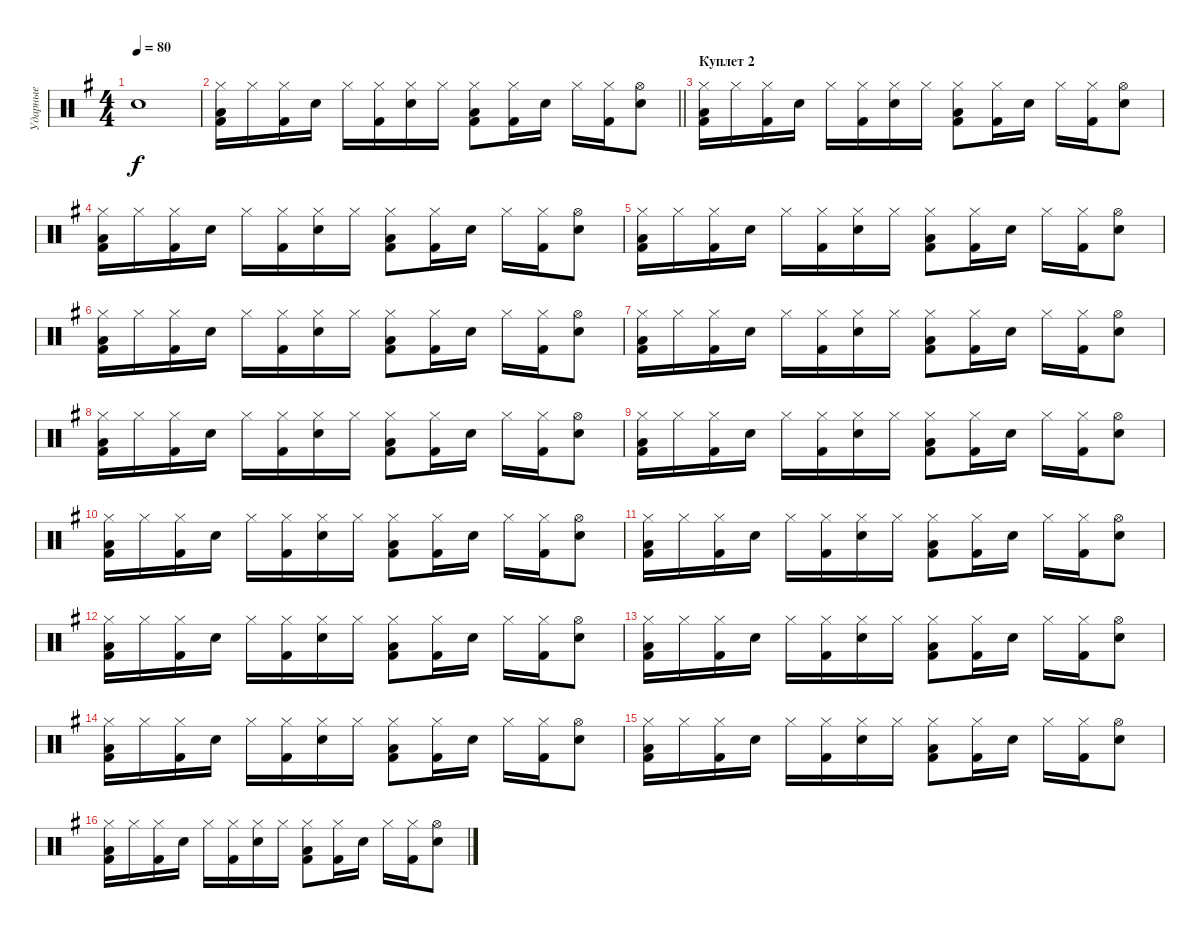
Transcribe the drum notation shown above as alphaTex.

\track ("Ударные" "Ударные") {instrument percussion}
\staff {score}
\articulation defaults
\ts (4 4)
\section ("" "")
\tempo 80
\clef neutral
\ks eminor "Snare (hit)"{t}.1{dy f}
|
\barLineRight lightlight
("Hi-Hat (closed)" "Low Tom (hit)" "Kick (hit) 2").16 "Hi-Hat (closed)".16 ("Hi-Hat (closed)" "Kick (hit) 2").16 "Electric Snare (hit)".16 "Hi-Hat (closed)".16 ("Hi-Hat (closed)" "Kick (hit) 2").16 ("Hi-Hat (closed)" "Electric Snare (hit)").16 "Hi-Hat (closed)".16 ("Hi-Hat (closed)" "Low Tom (hit)" "Kick (hit) 2").8 ("Hi-Hat (closed)" "Kick (hit) 2").16 "Electric Snare (hit)".16 "Hi-Hat (closed)".16 ("Hi-Hat (closed)" "Kick (hit) 2").16 ("Hi-Hat (open)" "Electric Snare (hit)").8 |
\section ("" "Куплет 2")
("Hi-Hat (closed)" "Low Tom (hit)" "Kick (hit) 2").16 "Hi-Hat (closed)".16 ("Hi-Hat (closed)" "Kick (hit) 2").16 "Electric Snare (hit)".16 "Hi-Hat (closed)".16 ("Hi-Hat (closed)" "Kick (hit) 2").16 ("Hi-Hat (closed)" "Electric Snare (hit)").16 "Hi-Hat (closed)".16 ("Hi-Hat (closed)" "Low Tom (hit)" "Kick (hit) 2").8 ("Hi-Hat (closed)" "Kick (hit) 2").16 "Electric Snare (hit)".16 "Hi-Hat (closed)".16 ("Hi-Hat (closed)" "Kick (hit) 2").16 ("Hi-Hat (open)" "Electric Snare (hit)").8 |
("Hi-Hat (closed)" "Low Tom (hit)" "Kick (hit) 2").16 "Hi-Hat (closed)".16 ("Hi-Hat (closed)" "Kick (hit) 2").16 "Electric Snare (hit)".16 "Hi-Hat (closed)".16 ("Hi-Hat (closed)" "Kick (hit) 2").16 ("Hi-Hat (closed)" "Electric Snare (hit)").16 "Hi-Hat (closed)".16 ("Hi-Hat (closed)" "Low Tom (hit)" "Kick (hit) 2").8 ("Hi-Hat (closed)" "Kick (hit) 2").16 "Electric Snare (hit)".16 "Hi-Hat (closed)".16 ("Hi-Hat (closed)" "Kick (hit) 2").16 ("Hi-Hat (open)" "Electric Snare (hit)").8 |
("Hi-Hat (closed)" "Low Tom (hit)" "Kick (hit) 2").16 "Hi-Hat (closed)".16 ("Hi-Hat (closed)" "Kick (hit) 2").16 "Electric Snare (hit)".16 "Hi-Hat (closed)".16 ("Hi-Hat (closed)" "Kick (hit) 2").16 ("Hi-Hat (closed)" "Electric Snare (hit)").16 "Hi-Hat (closed)".16 ("Hi-Hat (closed)" "Low Tom (hit)" "Kick (hit) 2").8 ("Hi-Hat (closed)" "Kick (hit) 2").16 "Electric Snare (hit)".16 "Hi-Hat (closed)".16 ("Hi-Hat (closed)" "Kick (hit) 2").16 ("Hi-Hat (open)" "Electric Snare (hit)").8 |
("Hi-Hat (closed)" "Low Tom (hit)" "Kick (hit) 2").16 "Hi-Hat (closed)".16 ("Hi-Hat (closed)" "Kick (hit) 2").16 "Electric Snare (hit)".16 "Hi-Hat (closed)".16 ("Hi-Hat (closed)" "Kick (hit) 2").16 ("Hi-Hat (closed)" "Electric Snare (hit)").16 "Hi-Hat (closed)".16 ("Hi-Hat (closed)" "Low Tom (hit)" "Kick (hit) 2").8 ("Hi-Hat (closed)" "Kick (hit) 2").16 "Electric Snare (hit)".16 "Hi-Hat (closed)".16 ("Hi-Hat (closed)" "Kick (hit) 2").16 ("Hi-Hat (open)" "Electric Snare (hit)").8 |
("Hi-Hat (closed)" "Low Tom (hit)" "Kick (hit) 2").16 "Hi-Hat (closed)".16 ("Hi-Hat (closed)" "Kick (hit) 2").16 "Electric Snare (hit)".16 "Hi-Hat (closed)".16 ("Hi-Hat (closed)" "Kick (hit) 2").16 ("Hi-Hat (closed)" "Electric Snare (hit)").16 "Hi-Hat (closed)".16 ("Hi-Hat (closed)" "Low Tom (hit)" "Kick (hit) 2").8 ("Hi-Hat (closed)" "Kick (hit) 2").16 "Electric Snare (hit)".16 "Hi-Hat (closed)".16 ("Hi-Hat (closed)" "Kick (hit) 2").16 ("Hi-Hat (open)" "Electric Snare (hit)").8 |
("Hi-Hat (closed)" "Low Tom (hit)" "Kick (hit) 2").16 "Hi-Hat (closed)".16 ("Hi-Hat (closed)" "Kick (hit) 2").16 "Electric Snare (hit)".16 "Hi-Hat (closed)".16 ("Hi-Hat (closed)" "Kick (hit) 2").16 ("Hi-Hat (closed)" "Electric Snare (hit)").16 "Hi-Hat (closed)".16 ("Hi-Hat (closed)" "Low Tom (hit)" "Kick (hit) 2").8 ("Hi-Hat (closed)" "Kick (hit) 2").16 "Electric Snare (hit)".16 "Hi-Hat (closed)".16 ("Hi-Hat (closed)" "Kick (hit) 2").16 ("Hi-Hat (open)" "Electric Snare (hit)").8 |
("Hi-Hat (closed)" "Low Tom (hit)" "Kick (hit) 2").16 "Hi-Hat (closed)".16 ("Hi-Hat (closed)" "Kick (hit) 2").16 "Electric Snare (hit)".16 "Hi-Hat (closed)".16 ("Hi-Hat (closed)" "Kick (hit) 2").16 ("Hi-Hat (closed)" "Electric Snare (hit)").16 "Hi-Hat (closed)".16 ("Hi-Hat (closed)" "Low Tom (hit)" "Kick (hit) 2").8 ("Hi-Hat (closed)" "Kick (hit) 2").16 "Electric Snare (hit)".16 "Hi-Hat (closed)".16 ("Hi-Hat (closed)" "Kick (hit) 2").16 ("Hi-Hat (open)" "Electric Snare (hit)").8 |
("Hi-Hat (closed)" "Low Tom (hit)" "Kick (hit) 2").16 "Hi-Hat (closed)".16 ("Hi-Hat (closed)" "Kick (hit) 2").16 "Electric Snare (hit)".16 "Hi-Hat (closed)".16 ("Hi-Hat (closed)" "Kick (hit) 2").16 ("Hi-Hat (closed)" "Electric Snare (hit)").16 "Hi-Hat (closed)".16 ("Hi-Hat (closed)" "Low Tom (hit)" "Kick (hit) 2").8 ("Hi-Hat (closed)" "Kick (hit) 2").16 "Electric Snare (hit)".16 "Hi-Hat (closed)".16 ("Hi-Hat (closed)" "Kick (hit) 2").16 ("Hi-Hat (open)" "Electric Snare (hit)").8 |
("Hi-Hat (closed)" "Low Tom (hit)" "Kick (hit) 2").16 "Hi-Hat (closed)".16 ("Hi-Hat (closed)" "Kick (hit) 2").16 "Electric Snare (hit)".16 "Hi-Hat (closed)".16 ("Hi-Hat (closed)" "Kick (hit) 2").16 ("Hi-Hat (closed)" "Electric Snare (hit)").16 "Hi-Hat (closed)".16 ("Hi-Hat (closed)" "Low Tom (hit)" "Kick (hit) 2").8 ("Hi-Hat (closed)" "Kick (hit) 2").16 "Electric Snare (hit)".16 "Hi-Hat (closed)".16 ("Hi-Hat (closed)" "Kick (hit) 2").16 ("Hi-Hat (open)" "Electric Snare (hit)").8 |
("Hi-Hat (closed)" "Low Tom (hit)" "Kick (hit) 2").16 "Hi-Hat (closed)".16 ("Hi-Hat (closed)" "Kick (hit) 2").16 "Electric Snare (hit)".16 "Hi-Hat (closed)".16 ("Hi-Hat (closed)" "Kick (hit) 2").16 ("Hi-Hat (closed)" "Electric Snare (hit)").16 "Hi-Hat (closed)".16 ("Hi-Hat (closed)" "Low Tom (hit)" "Kick (hit) 2").8 ("Hi-Hat (closed)" "Kick (hit) 2").16 "Electric Snare (hit)".16 "Hi-Hat (closed)".16 ("Hi-Hat (closed)" "Kick (hit) 2").16 ("Hi-Hat (open)" "Electric Snare (hit)").8 |
("Hi-Hat (closed)" "Low Tom (hit)" "Kick (hit) 2").16 "Hi-Hat (closed)".16 ("Hi-Hat (closed)" "Kick (hit) 2").16 "Electric Snare (hit)".16 "Hi-Hat (closed)".16 ("Hi-Hat (closed)" "Kick (hit) 2").16 ("Hi-Hat (closed)" "Electric Snare (hit)").16 "Hi-Hat (closed)".16 ("Hi-Hat (closed)" "Low Tom (hit)" "Kick (hit) 2").8 ("Hi-Hat (closed)" "Kick (hit) 2").16 "Electric Snare (hit)".16 "Hi-Hat (closed)".16 ("Hi-Hat (closed)" "Kick (hit) 2").16 ("Hi-Hat (open)" "Electric Snare (hit)").8 |
("Hi-Hat (closed)" "Low Tom (hit)" "Kick (hit) 2").16 "Hi-Hat (closed)".16 ("Hi-Hat (closed)" "Kick (hit) 2").16 "Electric Snare (hit)".16 "Hi-Hat (closed)".16 ("Hi-Hat (closed)" "Kick (hit) 2").16 ("Hi-Hat (closed)" "Electric Snare (hit)").16 "Hi-Hat (closed)".16 ("Hi-Hat (closed)" "Low Tom (hit)" "Kick (hit) 2").8 ("Hi-Hat (closed)" "Kick (hit) 2").16 "Electric Snare (hit)".16 "Hi-Hat (closed)".16 ("Hi-Hat (closed)" "Kick (hit) 2").16 ("Hi-Hat (open)" "Electric Snare (hit)").8 |
("Hi-Hat (closed)" "Low Tom (hit)" "Kick (hit) 2").16 "Hi-Hat (closed)".16 ("Hi-Hat (closed)" "Kick (hit) 2").16 "Electric Snare (hit)".16 "Hi-Hat (closed)".16 ("Hi-Hat (closed)" "Kick (hit) 2").16 ("Hi-Hat (closed)" "Electric Snare (hit)").16 "Hi-Hat (closed)".16 ("Hi-Hat (closed)" "Low Tom (hit)" "Kick (hit) 2").8 ("Hi-Hat (closed)" "Kick (hit) 2").16 "Electric Snare (hit)".16 "Hi-Hat (closed)".16 ("Hi-Hat (closed)" "Kick (hit) 2").16 ("Hi-Hat (open)" "Electric Snare (hit)").8 |
("Hi-Hat (closed)" "Low Tom (hit)" "Kick (hit) 2").16 "Hi-Hat (closed)".16 ("Hi-Hat (closed)" "Kick (hit) 2").16 "Electric Snare (hit)".16 "Hi-Hat (closed)".16 ("Hi-Hat (closed)" "Kick (hit) 2").16 ("Hi-Hat (closed)" "Electric Snare (hit)").16 "Hi-Hat (closed)".16 ("Hi-Hat (closed)" "Low Tom (hit)" "Kick (hit) 2").8 ("Hi-Hat (closed)" "Kick (hit) 2").16 "Electric Snare (hit)".16 "Hi-Hat (closed)".16 ("Hi-Hat (closed)" "Kick (hit) 2").16 ("Hi-Hat (open)" "Electric Snare (hit)").8
